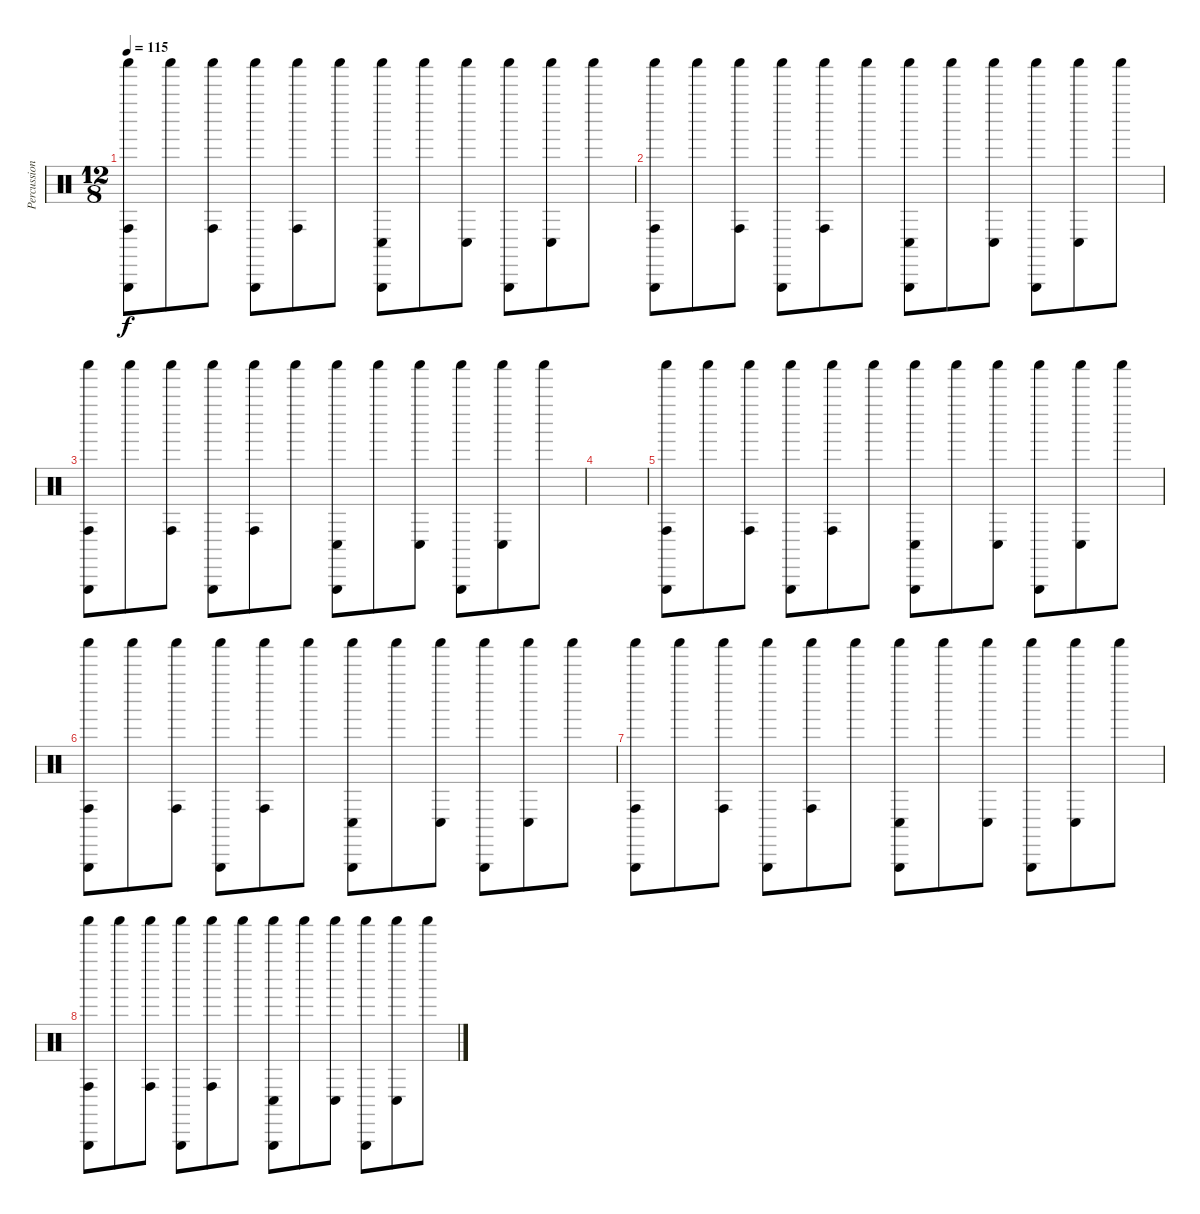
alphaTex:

\track ("Percussion" "Percussion") {instrument percussion}
\staff {score}
\articulation defaults
\ts (12 8)
\tempo 115
\clef neutral
\ks c
("Shaker (hit)" "Triangle (hit)" "Conga high (hit)").8{dy f} "Shaker (hit)".8 ("Shaker (hit)" "Conga high (hit)").8 ("Shaker (hit)" "Triangle (hit)").8 ("Shaker (hit)" "Conga high (hit)").8 "Shaker (hit)".8 ("Shaker (hit)" "Triangle (hit)" "Conga low (hit)").8 "Shaker (hit)".8 ("Shaker (hit)" "Conga low (hit)").8 ("Shaker (hit)" "Triangle (hit)").8 ("Shaker (hit)" "Conga low (hit)").8 "Shaker (hit)".8 |
("Shaker (hit)" "Triangle (hit)" "Conga high (hit)").8 "Shaker (hit)".8 ("Shaker (hit)" "Conga high (hit)").8 ("Shaker (hit)" "Triangle (hit)").8 ("Shaker (hit)" "Conga high (hit)").8 "Shaker (hit)".8 ("Shaker (hit)" "Triangle (hit)" "Conga low (hit)").8 "Shaker (hit)".8 ("Shaker (hit)" "Conga low (hit)").8 ("Shaker (hit)" "Triangle (hit)").8 ("Shaker (hit)" "Conga low (hit)").8 "Shaker (hit)".8 |
("Shaker (hit)" "Triangle (hit)" "Conga high (hit)").8 "Shaker (hit)".8 ("Shaker (hit)" "Conga high (hit)").8 ("Shaker (hit)" "Triangle (hit)").8 ("Shaker (hit)" "Conga high (hit)").8 "Shaker (hit)".8 ("Shaker (hit)" "Triangle (hit)" "Conga low (hit)").8 "Shaker (hit)".8 ("Shaker (hit)" "Conga low (hit)").8 ("Shaker (hit)" "Triangle (hit)").8 ("Shaker (hit)" "Conga low (hit)").8 "Shaker (hit)".8 |
|
("Shaker (hit)" "Triangle (hit)" "Conga high (hit)").8 "Shaker (hit)".8 ("Shaker (hit)" "Conga high (hit)").8 ("Shaker (hit)" "Triangle (hit)").8 ("Shaker (hit)" "Conga high (hit)").8 "Shaker (hit)".8 ("Shaker (hit)" "Triangle (hit)" "Conga low (hit)").8 "Shaker (hit)".8 ("Shaker (hit)" "Conga low (hit)").8 ("Shaker (hit)" "Triangle (hit)").8 ("Shaker (hit)" "Conga low (hit)").8 "Shaker (hit)".8 |
("Shaker (hit)" "Triangle (hit)" "Conga high (hit)").8 "Shaker (hit)".8 ("Shaker (hit)" "Conga high (hit)").8 ("Shaker (hit)" "Triangle (hit)").8 ("Shaker (hit)" "Conga high (hit)").8 "Shaker (hit)".8 ("Shaker (hit)" "Triangle (hit)" "Conga low (hit)").8 "Shaker (hit)".8 ("Shaker (hit)" "Conga low (hit)").8 ("Shaker (hit)" "Triangle (hit)").8 ("Shaker (hit)" "Conga low (hit)").8 "Shaker (hit)".8 |
("Shaker (hit)" "Triangle (hit)" "Conga high (hit)").8 "Shaker (hit)".8 ("Shaker (hit)" "Conga high (hit)").8 ("Shaker (hit)" "Triangle (hit)").8 ("Shaker (hit)" "Conga high (hit)").8 "Shaker (hit)".8 ("Shaker (hit)" "Triangle (hit)" "Conga low (hit)").8 "Shaker (hit)".8 ("Shaker (hit)" "Conga low (hit)").8 ("Shaker (hit)" "Triangle (hit)").8 ("Shaker (hit)" "Conga low (hit)").8 "Shaker (hit)".8 |
("Shaker (hit)" "Triangle (hit)" "Conga high (hit)").8 "Shaker (hit)".8 ("Shaker (hit)" "Conga high (hit)").8 ("Shaker (hit)" "Triangle (hit)").8 ("Shaker (hit)" "Conga high (hit)").8 "Shaker (hit)".8 ("Shaker (hit)" "Triangle (hit)" "Conga low (hit)").8 "Shaker (hit)".8 ("Shaker (hit)" "Conga low (hit)").8 ("Shaker (hit)" "Triangle (hit)").8 ("Shaker (hit)" "Conga low (hit)").8 "Shaker (hit)".8
